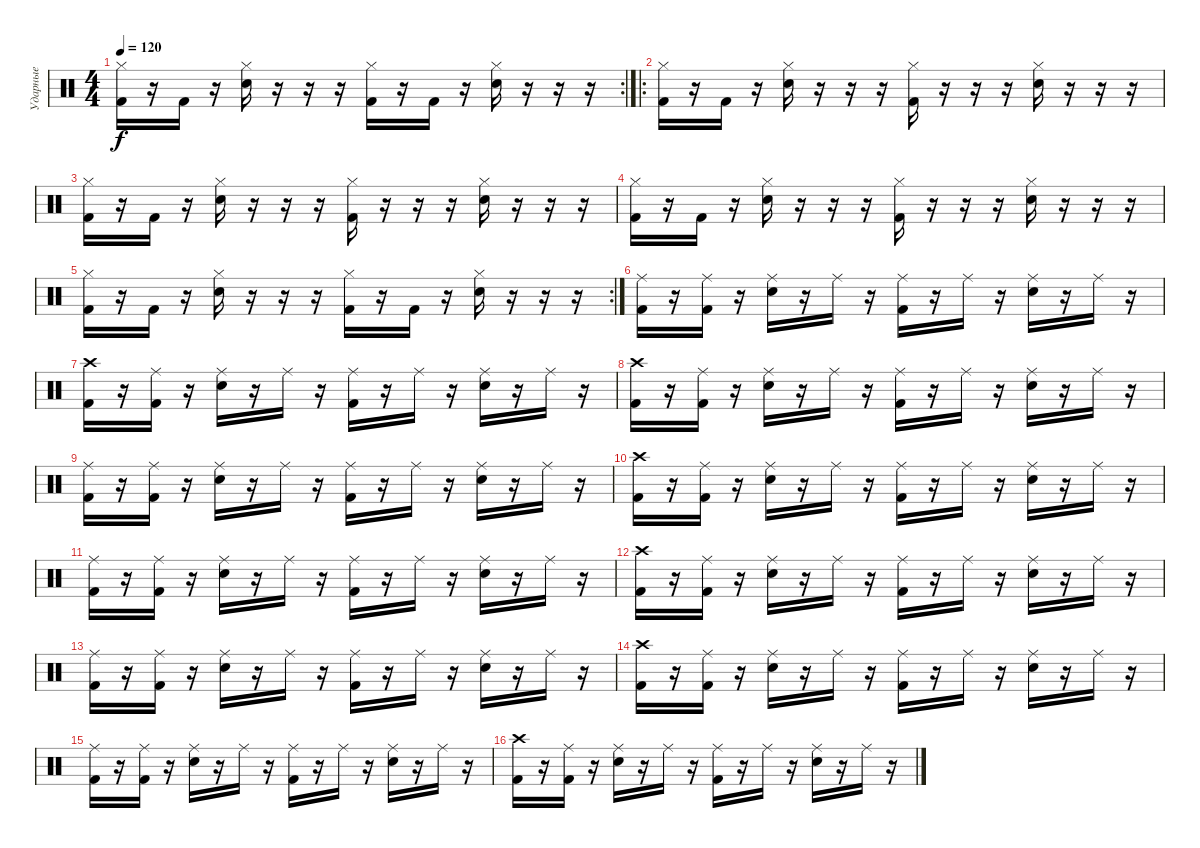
\track ("Ударные" "Ударные") {instrument percussion}
\staff {score}
\articulation defaults
\rc 2
\ts (4 4)
\tempo 120
\clef neutral
\ks c
("Kick (hit) 2" "Hi-Hat (closed)").16{dy f} r.16 "Kick (hit) 2".16 r.16 ("Snare (hit) 2" "Hi-Hat (closed)").16 r.16 r.16 r.16 ("Kick (hit) 2" "Hi-Hat (closed)").16 r.16 "Kick (hit) 2".16 r.16 ("Snare (hit) 2" "Hi-Hat (closed)").16 r.16 r.16 r.16 |
\ro
("Kick (hit) 2" "Hi-Hat (closed)").16 r.16 "Kick (hit) 2".16 r.16 ("Snare (hit) 2" "Hi-Hat (closed)").16 r.16 r.16 r.16 ("Kick (hit) 2" "Hi-Hat (closed)").16 r.16 r.16 r.16 ("Snare (hit) 2" "Hi-Hat (closed)").16 r.16 r.16 r.16 |
("Kick (hit) 2" "Hi-Hat (closed)").16 r.16 "Kick (hit) 2".16 r.16 ("Snare (hit) 2" "Hi-Hat (closed)").16 r.16 r.16 r.16 ("Kick (hit) 2" "Hi-Hat (closed)").16 r.16 r.16 r.16 ("Snare (hit) 2" "Hi-Hat (closed)").16 r.16 r.16 r.16 |
("Kick (hit) 2" "Hi-Hat (closed)").16 r.16 "Kick (hit) 2".16 r.16 ("Snare (hit) 2" "Hi-Hat (closed)").16 r.16 r.16 r.16 ("Kick (hit) 2" "Hi-Hat (closed)").16 r.16 r.16 r.16 ("Snare (hit) 2" "Hi-Hat (closed)").16 r.16 r.16 r.16 |
\rc 2
("Kick (hit) 2" "Hi-Hat (closed)").16 r.16 "Kick (hit) 2".16 r.16 ("Snare (hit) 2" "Hi-Hat (closed)").16 r.16 r.16 r.16 ("Kick (hit) 2" "Hi-Hat (closed)").16 r.16 "Kick (hit) 2".16 r.16 ("Snare (hit) 2" "Hi-Hat (closed)").16 r.16 r.16 r.16 |
("Kick (hit) 2" "Ride (middle)").16 r.16 ("Kick (hit) 2" "Ride (middle)").16 r.16 ("Snare (hit) 2" "Ride (middle)").16 r.16 "Ride (middle)".16 r.16 ("Kick (hit) 2" "Ride (middle)").16 r.16 "Ride (middle)".16 r.16 ("Snare (hit) 2" "Ride (middle)").16 r.16 "Ride (middle)".16 r.16 |
("Kick (hit) 2" "Crash high (hit)").16 r.16 ("Kick (hit) 2" "Ride (middle)").16 r.16 ("Snare (hit) 2" "Ride (middle)").16 r.16 "Ride (middle)".16 r.16 ("Kick (hit) 2" "Ride (middle)").16 r.16 "Ride (middle)".16 r.16 ("Snare (hit) 2" "Ride (middle)").16 r.16 "Ride (middle)".16 r.16 |
("Kick (hit) 2" "Crash high (hit)").16 r.16 ("Kick (hit) 2" "Ride (middle)").16 r.16 ("Snare (hit) 2" "Ride (middle)").16 r.16 "Ride (middle)".16 r.16 ("Kick (hit) 2" "Ride (middle)").16 r.16 "Ride (middle)".16 r.16 ("Snare (hit) 2" "Ride (middle)").16 r.16 "Ride (middle)".16 r.16 |
("Kick (hit) 2" "Ride (middle)").16 r.16 ("Kick (hit) 2" "Ride (middle)").16 r.16 ("Snare (hit) 2" "Ride (middle)").16 r.16 "Ride (middle)".16 r.16 ("Kick (hit) 2" "Ride (middle)").16 r.16 "Ride (middle)".16 r.16 ("Snare (hit) 2" "Ride (middle)").16 r.16 "Ride (middle)".16 r.16 |
("Kick (hit) 2" "Crash high (hit)").16 r.16 ("Kick (hit) 2" "Ride (middle)").16 r.16 ("Snare (hit) 2" "Ride (middle)").16 r.16 "Ride (middle)".16 r.16 ("Kick (hit) 2" "Ride (middle)").16 r.16 "Ride (middle)".16 r.16 ("Snare (hit) 2" "Ride (middle)").16 r.16 "Ride (middle)".16 r.16 |
("Kick (hit) 2" "Ride (middle)").16 r.16 ("Kick (hit) 2" "Ride (middle)").16 r.16 ("Snare (hit) 2" "Ride (middle)").16 r.16 "Ride (middle)".16 r.16 ("Kick (hit) 2" "Ride (middle)").16 r.16 "Ride (middle)".16 r.16 ("Snare (hit) 2" "Ride (middle)").16 r.16 "Ride (middle)".16 r.16 |
("Kick (hit) 2" "Crash high (hit)").16 r.16 ("Kick (hit) 2" "Ride (middle)").16 r.16 ("Snare (hit) 2" "Ride (middle)").16 r.16 "Ride (middle)".16 r.16 ("Kick (hit) 2" "Ride (middle)").16 r.16 "Ride (middle)".16 r.16 ("Snare (hit) 2" "Ride (middle)").16 r.16 "Ride (middle)".16 r.16 |
("Kick (hit) 2" "Ride (middle)").16 r.16 ("Kick (hit) 2" "Ride (middle)").16 r.16 ("Snare (hit) 2" "Ride (middle)").16 r.16 "Ride (middle)".16 r.16 ("Kick (hit) 2" "Ride (middle)").16 r.16 "Ride (middle)".16 r.16 ("Snare (hit) 2" "Ride (middle)").16 r.16 "Ride (middle)".16 r.16 |
("Kick (hit) 2" "Crash high (hit)").16 r.16 ("Kick (hit) 2" "Ride (middle)").16 r.16 ("Snare (hit) 2" "Ride (middle)").16 r.16 "Ride (middle)".16 r.16 ("Kick (hit) 2" "Ride (middle)").16 r.16 "Ride (middle)".16 r.16 ("Snare (hit) 2" "Ride (middle)").16 r.16 "Ride (middle)".16 r.16 |
("Kick (hit) 2" "Ride (middle)").16 r.16 ("Kick (hit) 2" "Ride (middle)").16 r.16 ("Snare (hit) 2" "Ride (middle)").16 r.16 "Ride (middle)".16 r.16 ("Kick (hit) 2" "Ride (middle)").16 r.16 "Ride (middle)".16 r.16 ("Snare (hit) 2" "Ride (middle)").16 r.16 "Ride (middle)".16 r.16 |
("Kick (hit) 2" "Crash high (hit)").16 r.16 ("Kick (hit) 2" "Ride (middle)").16 r.16 ("Snare (hit) 2" "Ride (middle)").16 r.16 "Ride (middle)".16 r.16 ("Kick (hit) 2" "Ride (middle)").16 r.16 "Ride (middle)".16 r.16 ("Snare (hit) 2" "Ride (middle)").16 r.16 "Ride (middle)".16 r.16
